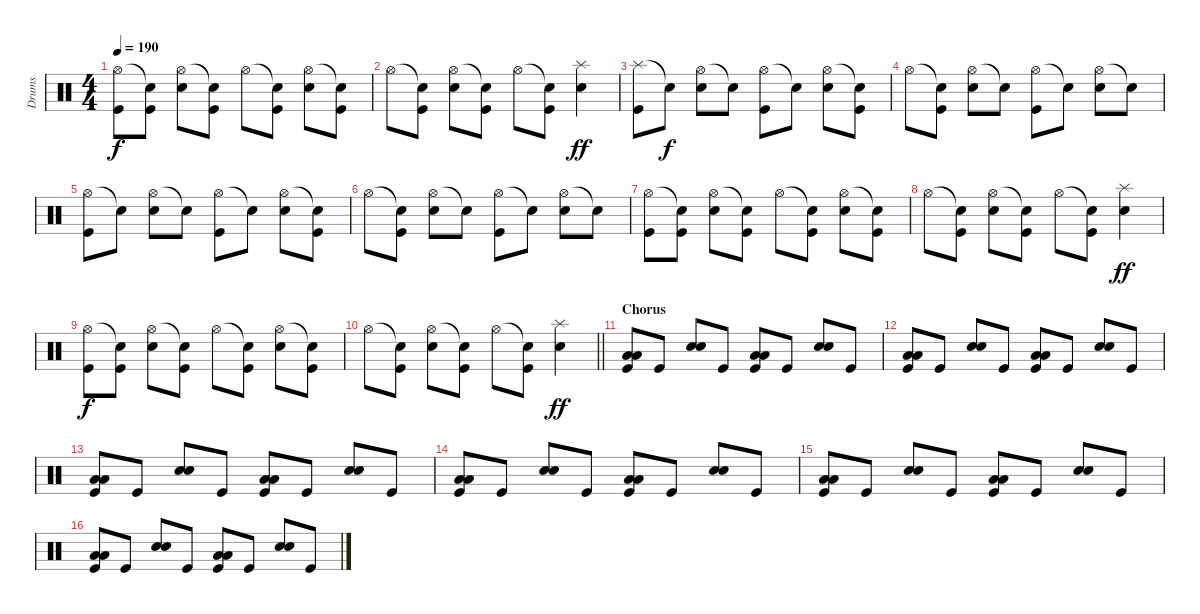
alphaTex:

\track ("Drums" "Drums") {instrument percussion}
\staff {score}
\articulation defaults
\ts (4 4)
\tempo 190
\clef neutral
\ks c
("Hi-Hat (open)" "Kick (hit)").8{dy f} ("Snare (hit)"{t} "Kick (hit)").8 ("Hi-Hat (open)" "Snare (hit) 2").8 ("Snare (hit)"{t} "Kick (hit)").8 "Hi-Hat (open)".8 ("Snare (hit)"{t} "Kick (hit)").8 ("Hi-Hat (open)" "Snare (hit) 2").8 ("Snare (hit)"{t} "Kick (hit)").8 |
"Hi-Hat (open)".8 ("Snare (hit)"{t} "Kick (hit)").8 ("Hi-Hat (open)" "Snare (hit) 2").8 ("Snare (hit)"{t} "Kick (hit)").8 "Hi-Hat (open)".8 ("Snare (hit)"{t} "Kick (hit)").8 ("Splash (hit)" "Snare (hit) 2").4{dy ff} |
("Splash (hit)" "Kick (hit)").8 "Snare (hit)"{t}.8{dy f} ("Hi-Hat (open)" "Snare (hit) 2").8 "Snare (hit)"{t}.8 ("Hi-Hat (open)" "Kick (hit)").8 "Snare (hit)"{t}.8 ("Hi-Hat (open)" "Snare (hit) 2").8 ("Snare (hit)"{t} "Kick (hit)").8 |
"Hi-Hat (open)".8 ("Snare (hit)"{t} "Kick (hit)").8 ("Hi-Hat (open)" "Snare (hit) 2").8 "Snare (hit)"{t}.8 ("Hi-Hat (open)" "Kick (hit)").8 "Snare (hit)"{t}.8 ("Hi-Hat (open)" "Snare (hit) 2").8 "Snare (hit)"{t}.8 |
("Hi-Hat (open)" "Kick (hit)").8 "Snare (hit)"{t}.8 ("Hi-Hat (open)" "Snare (hit) 2").8 "Snare (hit)"{t}.8 ("Hi-Hat (open)" "Kick (hit)").8 "Snare (hit)"{t}.8 ("Hi-Hat (open)" "Snare (hit) 2").8 ("Snare (hit)"{t} "Kick (hit)").8 |
"Hi-Hat (open)".8 ("Snare (hit)"{t} "Kick (hit)").8 ("Hi-Hat (open)" "Snare (hit) 2").8 "Snare (hit)"{t}.8 ("Hi-Hat (open)" "Kick (hit)").8 "Snare (hit)"{t}.8 ("Hi-Hat (open)" "Snare (hit) 2").8 "Snare (hit)"{t}.8 |
("Hi-Hat (open)" "Kick (hit)").8 ("Snare (hit)"{t} "Kick (hit)").8 ("Hi-Hat (open)" "Snare (hit) 2").8 ("Snare (hit)"{t} "Kick (hit)").8 "Hi-Hat (open)".8 ("Snare (hit)"{t} "Kick (hit)").8 ("Hi-Hat (open)" "Snare (hit) 2").8 ("Snare (hit)"{t} "Kick (hit)").8 |
"Hi-Hat (open)".8 ("Snare (hit)"{t} "Kick (hit)").8 ("Hi-Hat (open)" "Snare (hit) 2").8 ("Snare (hit)"{t} "Kick (hit)").8 "Hi-Hat (open)".8 ("Snare (hit)"{t} "Kick (hit)").8 ("Splash (hit)" "Snare (hit) 2").4{dy ff} |
("Hi-Hat (open)" "Kick (hit)").8{dy f} ("Snare (hit)"{t} "Kick (hit)").8 ("Hi-Hat (open)" "Snare (hit) 2").8 ("Snare (hit)"{t} "Kick (hit)").8 "Hi-Hat (open)".8 ("Snare (hit)"{t} "Kick (hit)").8 ("Hi-Hat (open)" "Snare (hit) 2").8 ("Snare (hit)"{t} "Kick (hit)").8 |
\barLineRight lightlight "Hi-Hat (open)".8
("Snare (hit)"{t} "Kick (hit)").8 ("Hi-Hat (open)" "Snare (hit) 2").8 ("Snare (hit)"{t} "Kick (hit)").8 "Hi-Hat (open)".8 ("Snare (hit)"{t} "Kick (hit)").8 ("Splash (hit)" "Snare (hit) 2").4{dy ff} |
\section ("" "Chorus")
("Low Tom (hit)" "Low Floor Tom (hit)" "Kick (hit)").8 "Kick (hit)".8 ("Snare (hit) 2" "Electric Snare (hit)").8 "Kick (hit)".8 ("Low Tom (hit)" "Low Floor Tom (hit)" "Kick (hit)").8 "Kick (hit)".8 ("Snare (hit) 2" "Electric Snare (hit)").8 "Kick (hit)".8 |
("Low Tom (hit)" "Low Floor Tom (hit)" "Kick (hit)").8 "Kick (hit)".8 ("Snare (hit) 2" "Electric Snare (hit)").8 "Kick (hit)".8 ("Low Tom (hit)" "Low Floor Tom (hit)" "Kick (hit)").8 "Kick (hit)".8 ("Snare (hit) 2" "Electric Snare (hit)").8 "Kick (hit)".8 |
("Low Tom (hit)" "Low Floor Tom (hit)" "Kick (hit)").8 "Kick (hit)".8 ("Snare (hit) 2" "Electric Snare (hit)").8 "Kick (hit)".8 ("Low Tom (hit)" "Low Floor Tom (hit)" "Kick (hit)").8 "Kick (hit)".8 ("Snare (hit) 2" "Electric Snare (hit)").8 "Kick (hit)".8 |
("Low Tom (hit)" "Low Floor Tom (hit)" "Kick (hit)").8 "Kick (hit)".8 ("Snare (hit) 2" "Electric Snare (hit)").8 "Kick (hit)".8 ("Low Tom (hit)" "Low Floor Tom (hit)" "Kick (hit)").8 "Kick (hit)".8 ("Snare (hit) 2" "Electric Snare (hit)").8 "Kick (hit)".8 |
("Low Tom (hit)" "Low Floor Tom (hit)" "Kick (hit)").8 "Kick (hit)".8 ("Snare (hit) 2" "Electric Snare (hit)").8 "Kick (hit)".8 ("Low Tom (hit)" "Low Floor Tom (hit)" "Kick (hit)").8 "Kick (hit)".8 ("Snare (hit) 2" "Electric Snare (hit)").8 "Kick (hit)".8 |
("Low Tom (hit)" "Low Floor Tom (hit)" "Kick (hit)").8 "Kick (hit)".8 ("Snare (hit) 2" "Electric Snare (hit)").8 "Kick (hit)".8 ("Low Tom (hit)" "Low Floor Tom (hit)" "Kick (hit)").8 "Kick (hit)".8 ("Snare (hit) 2" "Electric Snare (hit)").8 "Kick (hit)".8
